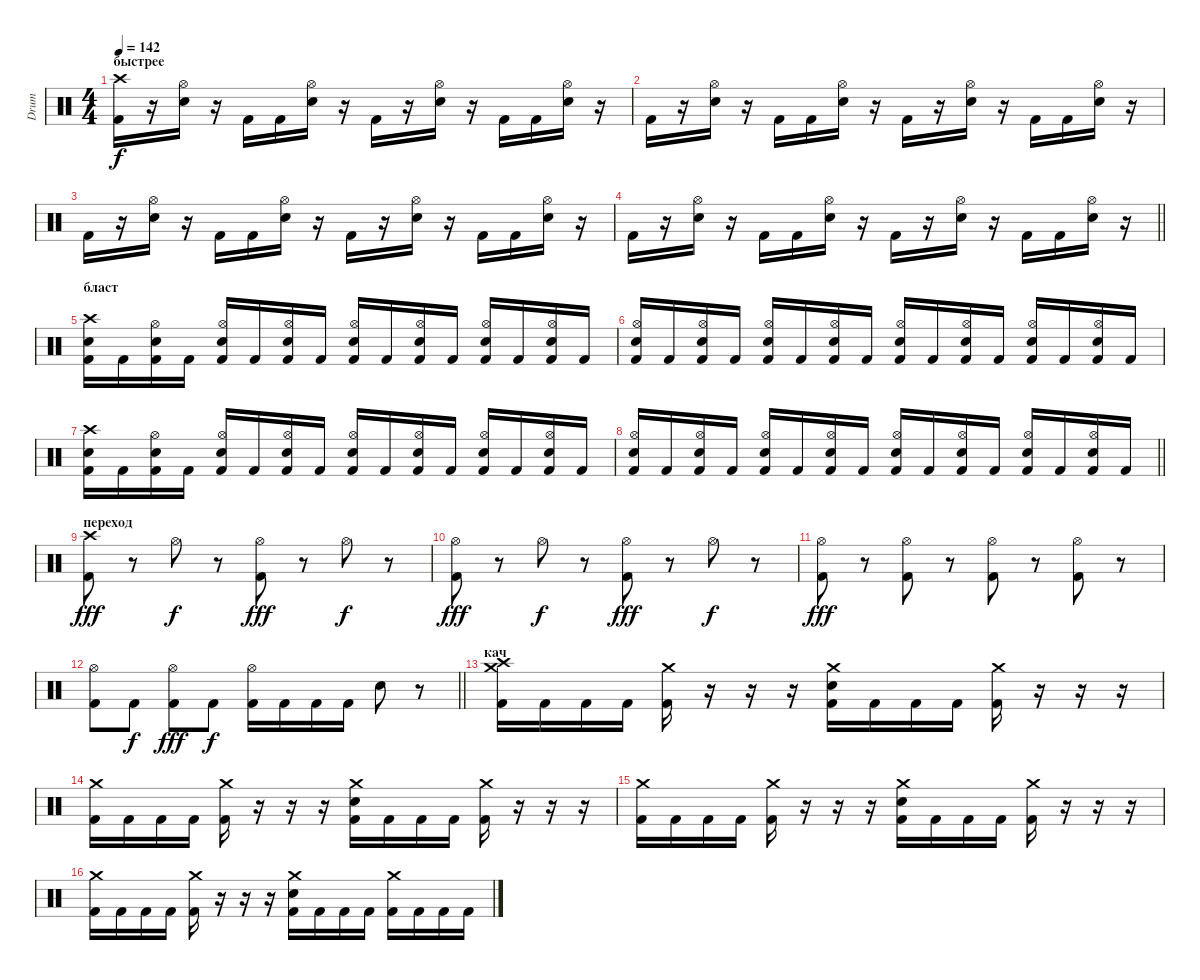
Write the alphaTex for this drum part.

\track ("Drum" "Drum") {instrument percussion}
\staff {score}
\articulation defaults
\ts (4 4)
\section ("" "быстрее")
\tempo 142
\clef neutral
\ks c
("Crash high (hit)" "Kick (hit) 2").16{dy f} r.16 ("Hi-Hat (open)" "Snare (hit) 2").16 r.16 "Kick (hit) 2".16 "Kick (hit) 2".16 ("Hi-Hat (open)" "Snare (hit) 2").16 r.16 "Kick (hit) 2".16 r.16 ("Hi-Hat (open)" "Snare (hit) 2").16 r.16 "Kick (hit) 2".16 "Kick (hit) 2".16 ("Hi-Hat (open)" "Snare (hit) 2").16 r.16 |
"Kick (hit) 2".16 r.16 ("Hi-Hat (open)" "Snare (hit) 2").16 r.16 "Kick (hit) 2".16 "Kick (hit) 2".16 ("Hi-Hat (open)" "Snare (hit) 2").16 r.16 "Kick (hit) 2".16 r.16 ("Hi-Hat (open)" "Snare (hit) 2").16 r.16 "Kick (hit) 2".16 "Kick (hit) 2".16 ("Hi-Hat (open)" "Snare (hit) 2").16 r.16 |
"Kick (hit) 2".16 r.16 ("Hi-Hat (open)" "Snare (hit) 2").16 r.16 "Kick (hit) 2".16 "Kick (hit) 2".16 ("Hi-Hat (open)" "Snare (hit) 2").16 r.16 "Kick (hit) 2".16 r.16 ("Hi-Hat (open)" "Snare (hit) 2").16 r.16 "Kick (hit) 2".16 "Kick (hit) 2".16 ("Hi-Hat (open)" "Snare (hit) 2").16 r.16 |
\barLineRight lightlight "Kick (hit) 2".16
r.16 ("Hi-Hat (open)" "Snare (hit) 2").16 r.16 "Kick (hit) 2".16 "Kick (hit) 2".16 ("Hi-Hat (open)" "Snare (hit) 2").16 r.16 "Kick (hit) 2".16 r.16 ("Hi-Hat (open)" "Snare (hit) 2").16 r.16 "Kick (hit) 2".16 "Kick (hit) 2".16 ("Hi-Hat (open)" "Snare (hit) 2").16 r.16 |
\section ("" "бласт")
("Crash high (hit)" "Snare (hit) 2" "Kick (hit) 2").16 "Kick (hit) 2".16 ("Hi-Hat (open)" "Snare (hit) 2" "Kick (hit) 2").16 "Kick (hit) 2".16 ("Hi-Hat (open)" "Snare (hit) 2" "Kick (hit) 2").16 "Kick (hit) 2".16 ("Hi-Hat (open)" "Snare (hit) 2" "Kick (hit) 2").16 "Kick (hit) 2".16 ("Hi-Hat (open)" "Snare (hit) 2" "Kick (hit) 2").16 "Kick (hit) 2".16 ("Hi-Hat (open)" "Snare (hit) 2" "Kick (hit) 2").16 "Kick (hit) 2".16 ("Hi-Hat (open)" "Snare (hit) 2" "Kick (hit) 2").16 "Kick (hit) 2".16 ("Hi-Hat (open)" "Snare (hit) 2" "Kick (hit) 2").16 "Kick (hit) 2".16 |
("Hi-Hat (open)" "Snare (hit) 2" "Kick (hit) 2").16 "Kick (hit) 2".16 ("Hi-Hat (open)" "Snare (hit) 2" "Kick (hit) 2").16 "Kick (hit) 2".16 ("Hi-Hat (open)" "Snare (hit) 2" "Kick (hit) 2").16 "Kick (hit) 2".16 ("Hi-Hat (open)" "Snare (hit) 2" "Kick (hit) 2").16 "Kick (hit) 2".16 ("Hi-Hat (open)" "Snare (hit) 2" "Kick (hit) 2").16 "Kick (hit) 2".16 ("Hi-Hat (open)" "Snare (hit) 2" "Kick (hit) 2").16 "Kick (hit) 2".16 ("Hi-Hat (open)" "Snare (hit) 2" "Kick (hit) 2").16 "Kick (hit) 2".16 ("Hi-Hat (open)" "Snare (hit) 2" "Kick (hit) 2").16 "Kick (hit) 2".16 |
("Crash high (hit)" "Snare (hit) 2" "Kick (hit) 2").16 "Kick (hit) 2".16 ("Hi-Hat (open)" "Snare (hit) 2" "Kick (hit) 2").16 "Kick (hit) 2".16 ("Hi-Hat (open)" "Snare (hit) 2" "Kick (hit) 2").16 "Kick (hit) 2".16 ("Hi-Hat (open)" "Snare (hit) 2" "Kick (hit) 2").16 "Kick (hit) 2".16 ("Hi-Hat (open)" "Snare (hit) 2" "Kick (hit) 2").16 "Kick (hit) 2".16 ("Hi-Hat (open)" "Snare (hit) 2" "Kick (hit) 2").16 "Kick (hit) 2".16 ("Hi-Hat (open)" "Snare (hit) 2" "Kick (hit) 2").16 "Kick (hit) 2".16 ("Hi-Hat (open)" "Snare (hit) 2" "Kick (hit) 2").16 "Kick (hit) 2".16 |
\barLineRight lightlight
("Hi-Hat (open)" "Snare (hit) 2" "Kick (hit) 2").16 "Kick (hit) 2".16 ("Hi-Hat (open)" "Snare (hit) 2" "Kick (hit) 2").16 "Kick (hit) 2".16 ("Hi-Hat (open)" "Snare (hit) 2" "Kick (hit) 2").16 "Kick (hit) 2".16 ("Hi-Hat (open)" "Snare (hit) 2" "Kick (hit) 2").16 "Kick (hit) 2".16 ("Hi-Hat (open)" "Snare (hit) 2" "Kick (hit) 2").16 "Kick (hit) 2".16 ("Hi-Hat (open)" "Snare (hit) 2" "Kick (hit) 2").16 "Kick (hit) 2".16 ("Hi-Hat (open)" "Snare (hit) 2" "Kick (hit) 2").16 "Kick (hit) 2".16 ("Hi-Hat (open)" "Snare (hit) 2" "Kick (hit) 2").16 "Kick (hit) 2".16 |
\section ("" "переход")
("Crash high (hit)" "Kick (hit) 2").8{dy fff} r.8 "Hi-Hat (open)".8{dy f} r.8 ("Hi-Hat (open)" "Kick (hit) 2").8{dy fff} r.8 "Hi-Hat (open)".8{dy f} r.8 |
("Hi-Hat (open)" "Kick (hit) 2").8{dy fff} r.8 "Hi-Hat (open)".8{dy f} r.8 ("Hi-Hat (open)" "Kick (hit) 2").8{dy fff} r.8 "Hi-Hat (open)".8{dy f} r.8 |
("Hi-Hat (open)" "Kick (hit) 2").8{dy fff} r.8 ("Hi-Hat (open)" "Kick (hit) 2").8 r.8 ("Hi-Hat (open)" "Kick (hit) 2").8 r.8 ("Hi-Hat (open)" "Kick (hit) 2").8 r.8 |
\barLineRight lightlight
("Hi-Hat (open)" "Kick (hit) 2").8 "Kick (hit) 2".8{dy f} ("Hi-Hat (open)" "Kick (hit) 2").8{dy fff} "Kick (hit) 2".8{dy f} ("Hi-Hat (open)" "Kick (hit) 2").16 "Kick (hit) 2".16 "Kick (hit) 2".16 "Kick (hit) 2".16 "Snare (hit) 2".8 r.8 |
\section ("" "кач")
("Crash high (hit)" "Crash medium (hit)" "Kick (hit) 2").16 "Kick (hit) 2".16 "Kick (hit) 2".16 "Kick (hit) 2".16 ("Crash medium (hit)" "Kick (hit) 2").16 r.16 r.16 r.16 ("Crash medium (hit)" "Snare (hit) 2" "Kick (hit) 2").16 "Kick (hit) 2".16 "Kick (hit) 2".16 "Kick (hit) 2".16 ("Crash medium (hit)" "Kick (hit) 2").16 r.16 r.16 r.16 |
("Crash medium (hit)" "Kick (hit) 2").16 "Kick (hit) 2".16 "Kick (hit) 2".16 "Kick (hit) 2".16 ("Crash medium (hit)" "Kick (hit) 2").16 r.16 r.16 r.16 ("Crash medium (hit)" "Snare (hit) 2" "Kick (hit) 2").16 "Kick (hit) 2".16 "Kick (hit) 2".16 "Kick (hit) 2".16 ("Crash medium (hit)" "Kick (hit) 2").16 r.16 r.16 r.16 |
("Crash medium (hit)" "Kick (hit) 2").16 "Kick (hit) 2".16 "Kick (hit) 2".16 "Kick (hit) 2".16 ("Crash medium (hit)" "Kick (hit) 2").16 r.16 r.16 r.16 ("Crash medium (hit)" "Snare (hit) 2" "Kick (hit) 2").16 "Kick (hit) 2".16 "Kick (hit) 2".16 "Kick (hit) 2".16 ("Crash medium (hit)" "Kick (hit) 2").16 r.16 r.16 r.16 |
("Crash medium (hit)" "Kick (hit) 2").16 "Kick (hit) 2".16 "Kick (hit) 2".16 "Kick (hit) 2".16 ("Crash medium (hit)" "Kick (hit) 2").16 r.16 r.16 r.16 ("Crash medium (hit)" "Snare (hit) 2" "Kick (hit) 2").16 "Kick (hit) 2".16 "Kick (hit) 2".16 "Kick (hit) 2".16 ("Crash medium (hit)" "Kick (hit) 2").16 "Kick (hit) 2".16 "Kick (hit) 2".16 "Kick (hit) 2".16
